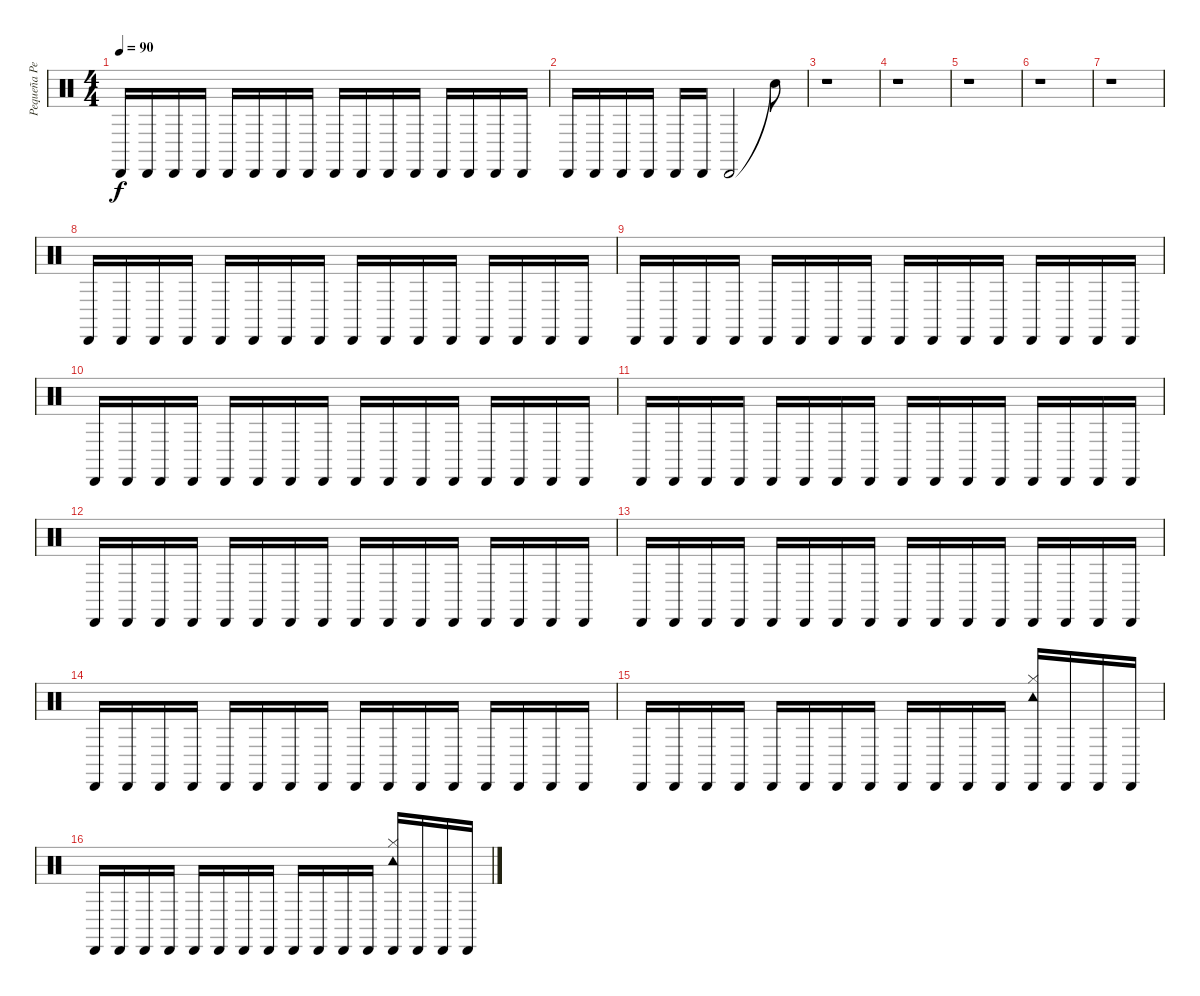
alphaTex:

\track ("Pequeña Percusión" "Pequeña Pe") {instrument percussion}
\staff {score}
\articulation defaults
\ts (4 4)
\tempo 90
\clef neutral
\ks c "Cabasa (hit)".16{dy f} "Cabasa (hit)".16 "Cabasa (hit)".16 "Cabasa (hit)".16 "Cabasa (hit)".16 "Cabasa (hit)".16 "Cabasa (hit)".16 "Cabasa (hit)".16 "Cabasa (hit)".16 "Cabasa (hit)".16 "Cabasa (hit)".16 "Cabasa (hit)".16 "Cabasa (hit)".16 "Cabasa (hit)".16 "Cabasa (hit)".16 "Cabasa (hit)".16
|
"Cabasa (hit)".16 "Cabasa (hit)".16 "Cabasa (hit)".16 "Cabasa (hit)".16 "Cabasa (hit)".16 "Cabasa (hit)".16 "Cabasa (hit)".2 "Snare (hit)"{t}.8 |
r.1 |
r.1 |
r.1 |
r.1 |
r.1 |
"Cabasa (hit)".16 "Cabasa (hit)".16 "Cabasa (hit)".16 "Cabasa (hit)".16 "Cabasa (hit)".16 "Cabasa (hit)".16 "Cabasa (hit)".16 "Cabasa (hit)".16 "Cabasa (hit)".16 "Cabasa (hit)".16 "Cabasa (hit)".16 "Cabasa (hit)".16 "Cabasa (hit)".16 "Cabasa (hit)".16 "Cabasa (hit)".16 "Cabasa (hit)".16 |
"Cabasa (hit)".16 "Cabasa (hit)".16 "Cabasa (hit)".16 "Cabasa (hit)".16 "Cabasa (hit)".16 "Cabasa (hit)".16 "Cabasa (hit)".16 "Cabasa (hit)".16 "Cabasa (hit)".16 "Cabasa (hit)".16 "Cabasa (hit)".16 "Cabasa (hit)".16 "Cabasa (hit)".16 "Cabasa (hit)".16 "Cabasa (hit)".16 "Cabasa (hit)".16 |
"Cabasa (hit)".16 "Cabasa (hit)".16 "Cabasa (hit)".16 "Cabasa (hit)".16 "Cabasa (hit)".16 "Cabasa (hit)".16 "Cabasa (hit)".16 "Cabasa (hit)".16 "Cabasa (hit)".16 "Cabasa (hit)".16 "Cabasa (hit)".16 "Cabasa (hit)".16 "Cabasa (hit)".16 "Cabasa (hit)".16 "Cabasa (hit)".16 "Cabasa (hit)".16 |
"Cabasa (hit)".16 "Cabasa (hit)".16 "Cabasa (hit)".16 "Cabasa (hit)".16 "Cabasa (hit)".16 "Cabasa (hit)".16 "Cabasa (hit)".16 "Cabasa (hit)".16 "Cabasa (hit)".16 "Cabasa (hit)".16 "Cabasa (hit)".16 "Cabasa (hit)".16 "Cabasa (hit)".16 "Cabasa (hit)".16 "Cabasa (hit)".16 "Cabasa (hit)".16 |
"Cabasa (hit)".16 "Cabasa (hit)".16 "Cabasa (hit)".16 "Cabasa (hit)".16 "Cabasa (hit)".16 "Cabasa (hit)".16 "Cabasa (hit)".16 "Cabasa (hit)".16 "Cabasa (hit)".16 "Cabasa (hit)".16 "Cabasa (hit)".16 "Cabasa (hit)".16 "Cabasa (hit)".16 "Cabasa (hit)".16 "Cabasa (hit)".16 "Cabasa (hit)".16 |
"Cabasa (hit)".16 "Cabasa (hit)".16 "Cabasa (hit)".16 "Cabasa (hit)".16 "Cabasa (hit)".16 "Cabasa (hit)".16 "Cabasa (hit)".16 "Cabasa (hit)".16 "Cabasa (hit)".16 "Cabasa (hit)".16 "Cabasa (hit)".16 "Cabasa (hit)".16 "Cabasa (hit)".16 "Cabasa (hit)".16 "Cabasa (hit)".16 "Cabasa (hit)".16 |
"Cabasa (hit)".16 "Cabasa (hit)".16 "Cabasa (hit)".16 "Cabasa (hit)".16 "Cabasa (hit)".16 "Cabasa (hit)".16 "Cabasa (hit)".16 "Cabasa (hit)".16 "Cabasa (hit)".16 "Cabasa (hit)".16 "Cabasa (hit)".16 "Cabasa (hit)".16 "Cabasa (hit)".16 "Cabasa (hit)".16 "Cabasa (hit)".16 "Cabasa (hit)".16 |
"Cabasa (hit)".16 "Cabasa (hit)".16 "Cabasa (hit)".16 "Cabasa (hit)".16 "Cabasa (hit)".16 "Cabasa (hit)".16 "Cabasa (hit)".16 "Cabasa (hit)".16 "Cabasa (hit)".16 "Cabasa (hit)".16 "Cabasa (hit)".16 "Cabasa (hit)".16 ("Cabasa (hit)" "Tambourine (hit)" "Hi-Hat (closed)").16 "Cabasa (hit)".16 "Cabasa (hit)".16 "Cabasa (hit)".16 |
"Cabasa (hit)".16 "Cabasa (hit)".16 "Cabasa (hit)".16 "Cabasa (hit)".16 "Cabasa (hit)".16 "Cabasa (hit)".16 "Cabasa (hit)".16 "Cabasa (hit)".16 "Cabasa (hit)".16 "Cabasa (hit)".16 "Cabasa (hit)".16 "Cabasa (hit)".16 ("Cabasa (hit)" "Tambourine (hit)" "Hi-Hat (closed)").16 "Cabasa (hit)".16 "Cabasa (hit)".16 "Cabasa (hit)".16
